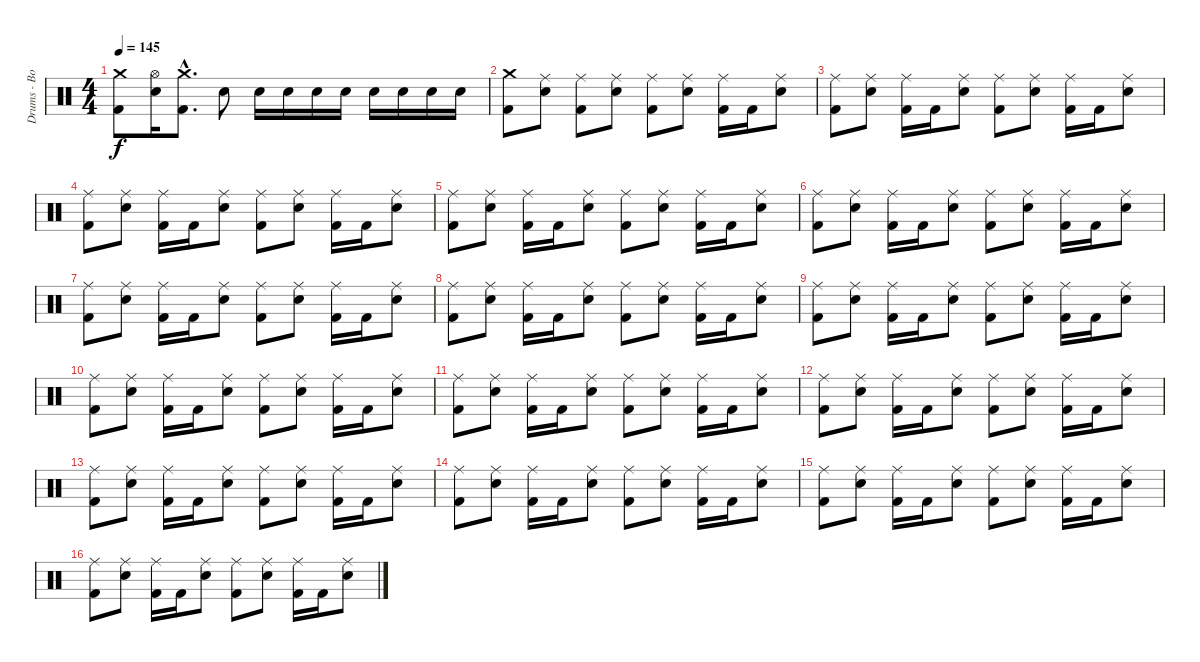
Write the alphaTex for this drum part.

\track ("Drums - Bobby Schayer" "Drums - Bo") {instrument percussion}
\staff {score}
\articulation defaults
\ts (4 4)
\tempo 145
\clef neutral
\ks c
("Crash medium (hit)" "Kick (hit) 2").8{dy f} ("Hi-Hat (open)" "Electric Snare (hit)").16 ("Crash medium (hit)"{hac} "Kick (hit) 2"{hac}).8{d} "Electric Snare (hit)".8 "Electric Snare (hit)".16 "Electric Snare (hit)".16 "Electric Snare (hit)".16 "Electric Snare (hit)".16 "Electric Snare (hit)".16 "Electric Snare (hit)".16 "Electric Snare (hit)".16 "Electric Snare (hit)".16 |
("Crash medium (hit)" "Kick (hit) 2").8 ("Ride (middle)" "Electric Snare (hit)").8 ("Ride (middle)" "Kick (hit) 2").8 ("Ride (middle)" "Electric Snare (hit)").8 ("Ride (middle)" "Kick (hit) 2").8 ("Ride (middle)" "Electric Snare (hit)").8 ("Ride (middle)" "Kick (hit) 2").16 "Kick (hit) 2".16 ("Ride (middle)" "Electric Snare (hit)").8 |
("Ride (middle)" "Kick (hit) 2").8 ("Ride (middle)" "Electric Snare (hit)").8 ("Ride (middle)" "Kick (hit) 2").16 "Kick (hit) 2".16 ("Ride (middle)" "Electric Snare (hit)").8 ("Ride (middle)" "Kick (hit) 2").8 ("Ride (middle)" "Electric Snare (hit)").8 ("Ride (middle)" "Kick (hit) 2").16 "Kick (hit) 2".16 ("Ride (middle)" "Electric Snare (hit)").8 |
("Ride (middle)" "Kick (hit) 2").8 ("Ride (middle)" "Electric Snare (hit)").8 ("Ride (middle)" "Kick (hit) 2").16 "Kick (hit) 2".16 ("Ride (middle)" "Electric Snare (hit)").8 ("Ride (middle)" "Kick (hit) 2").8 ("Ride (middle)" "Electric Snare (hit)").8 ("Ride (middle)" "Kick (hit) 2").16 "Kick (hit) 2".16 ("Ride (middle)" "Electric Snare (hit)").8 |
("Ride (middle)" "Kick (hit) 2").8 ("Ride (middle)" "Electric Snare (hit)").8 ("Ride (middle)" "Kick (hit) 2").16 "Kick (hit) 2".16 ("Ride (middle)" "Electric Snare (hit)").8 ("Ride (middle)" "Kick (hit) 2").8 ("Ride (middle)" "Electric Snare (hit)").8 ("Ride (middle)" "Kick (hit) 2").16 "Kick (hit) 2".16 ("Ride (middle)" "Electric Snare (hit)").8 |
("Ride (middle)" "Kick (hit) 2").8 ("Ride (middle)" "Electric Snare (hit)").8 ("Ride (middle)" "Kick (hit) 2").16 "Kick (hit) 2".16 ("Ride (middle)" "Electric Snare (hit)").8 ("Ride (middle)" "Kick (hit) 2").8 ("Ride (middle)" "Electric Snare (hit)").8 ("Ride (middle)" "Kick (hit) 2").16 "Kick (hit) 2".16 ("Ride (middle)" "Electric Snare (hit)").8 |
("Ride (middle)" "Kick (hit) 2").8 ("Ride (middle)" "Electric Snare (hit)").8 ("Ride (middle)" "Kick (hit) 2").16 "Kick (hit) 2".16 ("Ride (middle)" "Electric Snare (hit)").8 ("Ride (middle)" "Kick (hit) 2").8 ("Ride (middle)" "Electric Snare (hit)").8 ("Ride (middle)" "Kick (hit) 2").16 "Kick (hit) 2".16 ("Ride (middle)" "Electric Snare (hit)").8 |
("Ride (middle)" "Kick (hit) 2").8 ("Ride (middle)" "Electric Snare (hit)").8 ("Ride (middle)" "Kick (hit) 2").16 "Kick (hit) 2".16 ("Ride (middle)" "Electric Snare (hit)").8 ("Ride (middle)" "Kick (hit) 2").8 ("Ride (middle)" "Electric Snare (hit)").8 ("Ride (middle)" "Kick (hit) 2").16 "Kick (hit) 2".16 ("Ride (middle)" "Electric Snare (hit)").8 |
("Ride (middle)" "Kick (hit) 2").8 ("Ride (middle)" "Electric Snare (hit)").8 ("Ride (middle)" "Kick (hit) 2").16 "Kick (hit) 2".16 ("Ride (middle)" "Electric Snare (hit)").8 ("Ride (middle)" "Kick (hit) 2").8 ("Ride (middle)" "Electric Snare (hit)").8 ("Ride (middle)" "Kick (hit) 2").16 "Kick (hit) 2".16 ("Ride (middle)" "Electric Snare (hit)").8 |
("Ride (middle)" "Kick (hit) 2").8 ("Ride (middle)" "Electric Snare (hit)").8 ("Ride (middle)" "Kick (hit) 2").16 "Kick (hit) 2".16 ("Ride (middle)" "Electric Snare (hit)").8 ("Ride (middle)" "Kick (hit) 2").8 ("Ride (middle)" "Electric Snare (hit)").8 ("Ride (middle)" "Kick (hit) 2").16 "Kick (hit) 2".16 ("Ride (middle)" "Electric Snare (hit)").8 |
("Ride (middle)" "Kick (hit) 2").8 ("Ride (middle)" "Electric Snare (hit)").8 ("Ride (middle)" "Kick (hit) 2").16 "Kick (hit) 2".16 ("Ride (middle)" "Electric Snare (hit)").8 ("Ride (middle)" "Kick (hit) 2").8 ("Ride (middle)" "Electric Snare (hit)").8 ("Ride (middle)" "Kick (hit) 2").16 "Kick (hit) 2".16 ("Ride (middle)" "Electric Snare (hit)").8 |
("Ride (middle)" "Kick (hit) 2").8 ("Ride (middle)" "Electric Snare (hit)").8 ("Ride (middle)" "Kick (hit) 2").16 "Kick (hit) 2".16 ("Ride (middle)" "Electric Snare (hit)").8 ("Ride (middle)" "Kick (hit) 2").8 ("Ride (middle)" "Electric Snare (hit)").8 ("Ride (middle)" "Kick (hit) 2").16 "Kick (hit) 2".16 ("Ride (middle)" "Electric Snare (hit)").8 |
("Ride (middle)" "Kick (hit) 2").8 ("Ride (middle)" "Electric Snare (hit)").8 ("Ride (middle)" "Kick (hit) 2").16 "Kick (hit) 2".16 ("Ride (middle)" "Electric Snare (hit)").8 ("Ride (middle)" "Kick (hit) 2").8 ("Ride (middle)" "Electric Snare (hit)").8 ("Ride (middle)" "Kick (hit) 2").16 "Kick (hit) 2".16 ("Ride (middle)" "Electric Snare (hit)").8 |
("Ride (middle)" "Kick (hit) 2").8 ("Ride (middle)" "Electric Snare (hit)").8 ("Ride (middle)" "Kick (hit) 2").16 "Kick (hit) 2".16 ("Ride (middle)" "Electric Snare (hit)").8 ("Ride (middle)" "Kick (hit) 2").8 ("Ride (middle)" "Electric Snare (hit)").8 ("Ride (middle)" "Kick (hit) 2").16 "Kick (hit) 2".16 ("Ride (middle)" "Electric Snare (hit)").8 |
("Ride (middle)" "Kick (hit) 2").8 ("Ride (middle)" "Electric Snare (hit)").8 ("Ride (middle)" "Kick (hit) 2").16 "Kick (hit) 2".16 ("Ride (middle)" "Electric Snare (hit)").8 ("Ride (middle)" "Kick (hit) 2").8 ("Ride (middle)" "Electric Snare (hit)").8 ("Ride (middle)" "Kick (hit) 2").16 "Kick (hit) 2".16 ("Ride (middle)" "Electric Snare (hit)").8 |
("Ride (middle)" "Kick (hit) 2").8 ("Ride (middle)" "Electric Snare (hit)").8 ("Ride (middle)" "Kick (hit) 2").16 "Kick (hit) 2".16 ("Ride (middle)" "Electric Snare (hit)").8 ("Ride (middle)" "Kick (hit) 2").8 ("Ride (middle)" "Electric Snare (hit)").8 ("Ride (middle)" "Kick (hit) 2").16 "Kick (hit) 2".16 ("Ride (middle)" "Electric Snare (hit)").8
